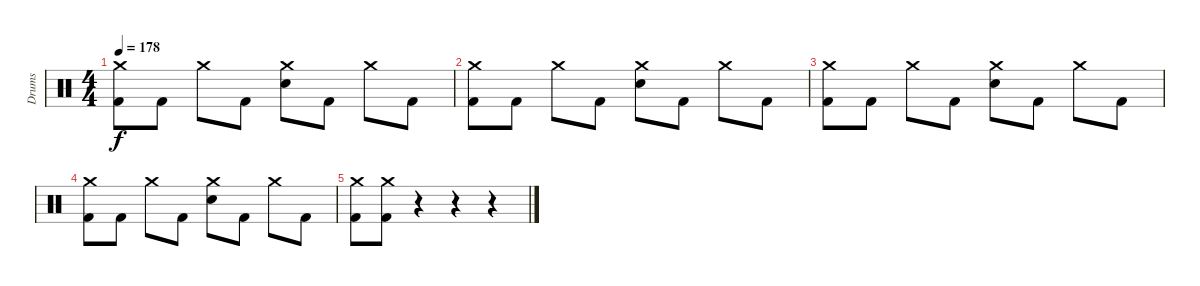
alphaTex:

\track ("Drums" "Drums") {instrument percussion}
\staff {score}
\articulation defaults
\ts (4 4)
\tempo 178
\clef neutral
\ks c
("Crash medium (hit)" "Kick (hit) 2").8{dy f} "Kick (hit) 2".8 "Crash medium (hit)".8 "Kick (hit) 2".8 ("Crash medium (hit)" "Electric Snare (hit)").8 "Kick (hit) 2".8 "Crash medium (hit)".8 "Kick (hit) 2".8 |
("Crash medium (hit)" "Kick (hit) 2").8 "Kick (hit) 2".8 "Crash medium (hit)".8 "Kick (hit) 2".8 ("Crash medium (hit)" "Electric Snare (hit)").8 "Kick (hit) 2".8 "Crash medium (hit)".8 "Kick (hit) 2".8 |
("Crash medium (hit)" "Kick (hit) 2").8 "Kick (hit) 2".8 "Crash medium (hit)".8 "Kick (hit) 2".8 ("Crash medium (hit)" "Electric Snare (hit)").8 "Kick (hit) 2".8 "Crash medium (hit)".8 "Kick (hit) 2".8 |
("Crash medium (hit)" "Kick (hit) 2").8 "Kick (hit) 2".8 "Crash medium (hit)".8 "Kick (hit) 2".8 ("Crash medium (hit)" "Electric Snare (hit)").8 "Kick (hit) 2".8 "Crash medium (hit)".8 "Kick (hit) 2".8 |
("Crash medium (hit)" "Kick (hit) 2").8 ("Crash medium (hit)" "Kick (hit) 2").8 r.4 r.4 r.4
